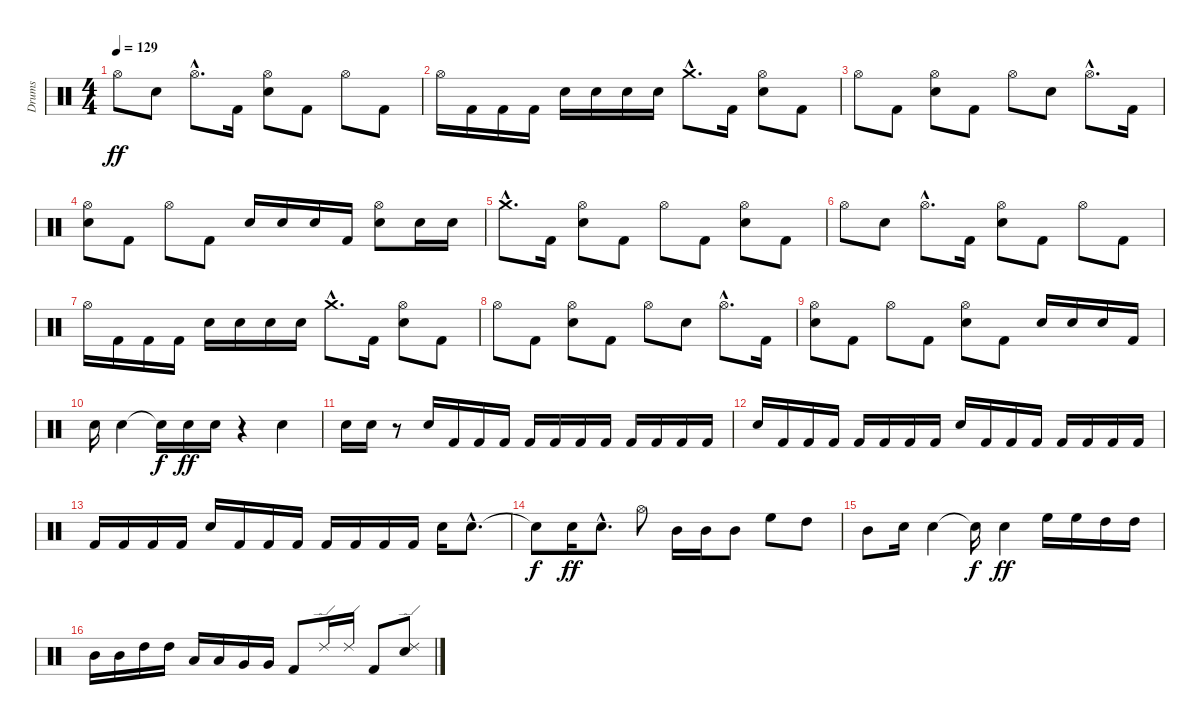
\track ("Drums" "Drums") {instrument percussion}
\staff {score}
\articulation defaults
\ts (4 4)
\tempo 129
\clef neutral
\ks c "Hi-Hat (open)".8{dy ff} "Electric Snare (hit)".8 "Hi-Hat (open)"{hac}.8{d} "Kick (hit) 2".16
("Electric Snare (hit)" "Hi-Hat (open)").8 "Kick (hit) 2".8 "Hi-Hat (open)".8 "Kick (hit) 2".8 |
"Hi-Hat (open)".16 "Kick (hit) 2".16 "Kick (hit) 2".16 "Kick (hit) 2".16 "Electric Snare (hit)".16 "Electric Snare (hit)".16 "Electric Snare (hit)".16 "Electric Snare (hit)".16 "Crash medium (hit)"{hac}.8{d} "Kick (hit) 2".16 ("Electric Snare (hit)" "Hi-Hat (open)").8 "Kick (hit) 2".8 |
"Hi-Hat (open)".8 "Kick (hit) 2".8 ("Electric Snare (hit)" "Hi-Hat (open)").8 "Kick (hit) 2".8 "Hi-Hat (open)".8 "Electric Snare (hit)".8 "Hi-Hat (open)"{hac}.8{d} "Kick (hit) 2".16 |
("Electric Snare (hit)" "Hi-Hat (open)").8 "Kick (hit) 2".8 "Hi-Hat (open)".8 "Kick (hit) 2".8 "Electric Snare (hit)".16 "Electric Snare (hit)".16 "Electric Snare (hit)".16 "Kick (hit) 2".16 ("Electric Snare (hit)" "Hi-Hat (open)").8 "Electric Snare (hit)".16 "Electric Snare (hit)".16 |
"Crash medium (hit)"{hac}.8{d} "Kick (hit) 2".16 ("Electric Snare (hit)" "Hi-Hat (open)").8 "Kick (hit) 2".8 "Hi-Hat (open)".8 "Kick (hit) 2".8 ("Electric Snare (hit)" "Hi-Hat (open)").8 "Kick (hit) 2".8 |
"Hi-Hat (open)".8 "Electric Snare (hit)".8 "Hi-Hat (open)"{hac}.8{d} "Kick (hit) 2".16 ("Electric Snare (hit)" "Hi-Hat (open)").8 "Kick (hit) 2".8 "Hi-Hat (open)".8 "Kick (hit) 2".8 |
"Hi-Hat (open)".16 "Kick (hit) 2".16 "Kick (hit) 2".16 "Kick (hit) 2".16 "Electric Snare (hit)".16 "Electric Snare (hit)".16 "Electric Snare (hit)".16 "Electric Snare (hit)".16 "Crash medium (hit)"{hac}.8{d} "Kick (hit) 2".16 ("Electric Snare (hit)" "Hi-Hat (open)").8 "Kick (hit) 2".8 |
"Hi-Hat (open)".8 "Kick (hit) 2".8 ("Electric Snare (hit)" "Hi-Hat (open)").8 "Kick (hit) 2".8 "Hi-Hat (open)".8 "Electric Snare (hit)".8 "Hi-Hat (open)"{hac}.8{d} "Kick (hit) 2".16 |
("Electric Snare (hit)" "Hi-Hat (open)").8 "Kick (hit) 2".8 "Hi-Hat (open)".8 "Kick (hit) 2".8 ("Electric Snare (hit)" "Hi-Hat (open)").8 "Kick (hit) 2".8 "Electric Snare (hit)".16 "Electric Snare (hit)".16 "Electric Snare (hit)".16 "Kick (hit) 2".16 |
"Electric Snare (hit)".16 "Electric Snare (hit)".4 "Snare (hit)"{t}.16{dy f} "Electric Snare (hit)".16{dy ff} "Electric Snare (hit)".16 r.4 "Electric Snare (hit)".4 |
"Electric Snare (hit)".16 "Electric Snare (hit)".16 r.8 "Electric Snare (hit)".16 "Kick (hit) 2".16 "Kick (hit) 2".16 "Kick (hit) 2".16 "Kick (hit) 2".16 "Kick (hit) 2".16 "Kick (hit) 2".16 "Kick (hit) 2".16 "Kick (hit) 2".16 "Kick (hit) 2".16 "Kick (hit) 2".16 "Kick (hit) 2".16 |
"Electric Snare (hit)".16 "Kick (hit) 2".16 "Kick (hit) 2".16 "Kick (hit) 2".16 "Kick (hit) 2".16 "Kick (hit) 2".16 "Kick (hit) 2".16 "Kick (hit) 2".16 "Electric Snare (hit)".16 "Kick (hit) 2".16 "Kick (hit) 2".16 "Kick (hit) 2".16 "Kick (hit) 2".16 "Kick (hit) 2".16 "Kick (hit) 2".16 "Kick (hit) 2".16 |
"Kick (hit) 2".16 "Kick (hit) 2".16 "Kick (hit) 2".16 "Kick (hit) 2".16 "Electric Snare (hit)".16 "Kick (hit) 2".16 "Kick (hit) 2".16 "Kick (hit) 2".16 "Kick (hit) 2".16 "Kick (hit) 2".16 "Kick (hit) 2".16 "Kick (hit) 2".16 "Electric Snare (hit)".16 "Electric Snare (hit)"{hac}.8{d} |
"Snare (hit)"{t}.8{dy f} "Electric Snare (hit)".16{dy ff} "Electric Snare (hit)"{hac}.8{d} "Hi-Hat (open)".8 "Mid Tom (hit)".16 "Mid Tom (hit)".16 "Mid Tom (hit)".8 "High Floor Tom (hit)".8 "High Tom (hit)".8 |
"Mid Tom (hit)".8 "Electric Snare (hit)".16 "Electric Snare (hit)".4 "Snare (hit)"{t}.16{dy f} "Electric Snare (hit)".4{dy ff} "High Floor Tom (hit)".16 "High Floor Tom (hit)".16 "High Tom (hit)".16 "High Tom (hit)".16 |
"Mid Tom (hit)".16 "Mid Tom (hit)".16 "High Tom (hit)".16 "High Tom (hit)".16 "Low Tom (hit)".16 "Low Tom (hit)".16 "Very Low Tom (hit)".16 "Very Low Tom (hit)".16 "Kick (hit) 2".8 "Ride (edge) 2".16 "Ride (edge) 2".16 "Kick (hit) 2".8 ("Electric Snare (hit)" "Ride (edge) 2").8
